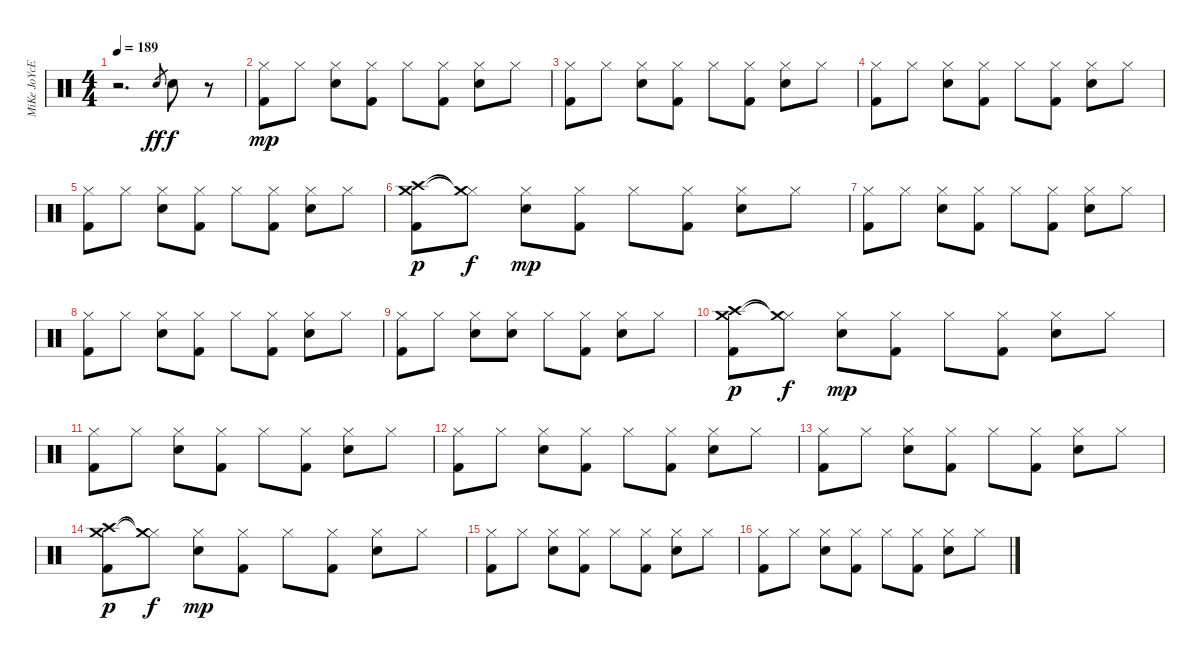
\track ("MiKe JoYcE" "MiKe JoYcE") {instrument percussion}
\staff {score}
\articulation defaults
\ts (4 4)
\tempo 189
\clef neutral
\ks c
r.2{d dy ff} "Electric Snare (hit)".8{gr} "Electric Snare (hit)".8{dy f} r.8 |
("Hi-Hat (closed)" "Kick (hit) 2").8{dy mp} "Hi-Hat (closed)".8 ("Hi-Hat (closed)" "Electric Snare (hit)").8 ("Hi-Hat (closed)" "Kick (hit) 2").8 "Hi-Hat (closed)".8 ("Hi-Hat (closed)" "Kick (hit) 2").8 ("Hi-Hat (closed)" "Electric Snare (hit)").8 "Hi-Hat (closed)".8 |
("Hi-Hat (closed)" "Kick (hit) 2").8 "Hi-Hat (closed)".8 ("Hi-Hat (closed)" "Electric Snare (hit)").8 ("Hi-Hat (closed)" "Kick (hit) 2").8 "Hi-Hat (closed)".8 ("Hi-Hat (closed)" "Kick (hit) 2").8 ("Hi-Hat (closed)" "Electric Snare (hit)").8 "Hi-Hat (closed)".8 |
("Hi-Hat (closed)" "Kick (hit) 2").8 "Hi-Hat (closed)".8 ("Hi-Hat (closed)" "Electric Snare (hit)").8 ("Hi-Hat (closed)" "Kick (hit) 2").8 "Hi-Hat (closed)".8 ("Hi-Hat (closed)" "Kick (hit) 2").8 ("Hi-Hat (closed)" "Electric Snare (hit)").8 "Hi-Hat (closed)".8 |
("Hi-Hat (closed)" "Kick (hit) 2").8 "Hi-Hat (closed)".8 ("Hi-Hat (closed)" "Electric Snare (hit)").8 ("Hi-Hat (closed)" "Kick (hit) 2").8 "Hi-Hat (closed)".8 ("Hi-Hat (closed)" "Kick (hit) 2").8 ("Hi-Hat (closed)" "Electric Snare (hit)").8 "Hi-Hat (closed)".8 |
("Crash high (hit)" "Crash medium (hit)" "Kick (hit) 2").8{dy p} ("Hi-Hat (closed)"{t} "Crash medium (hit)"{t}).8{dy f} ("Hi-Hat (closed)" "Electric Snare (hit)").8{dy mp} ("Hi-Hat (closed)" "Kick (hit) 2").8 "Hi-Hat (closed)".8 ("Hi-Hat (closed)" "Kick (hit) 2").8 ("Hi-Hat (closed)" "Electric Snare (hit)").8 "Hi-Hat (closed)".8 |
("Hi-Hat (closed)" "Kick (hit) 2").8 "Hi-Hat (closed)".8 ("Hi-Hat (closed)" "Electric Snare (hit)").8 ("Hi-Hat (closed)" "Kick (hit) 2").8 "Hi-Hat (closed)".8 ("Hi-Hat (closed)" "Kick (hit) 2").8 ("Hi-Hat (closed)" "Electric Snare (hit)").8 "Hi-Hat (closed)".8 |
("Hi-Hat (closed)" "Kick (hit) 2").8 "Hi-Hat (closed)".8 ("Hi-Hat (closed)" "Electric Snare (hit)").8 ("Hi-Hat (closed)" "Kick (hit) 2").8 "Hi-Hat (closed)".8 ("Hi-Hat (closed)" "Kick (hit) 2").8 ("Hi-Hat (closed)" "Electric Snare (hit)").8 "Hi-Hat (closed)".8 |
("Hi-Hat (closed)" "Kick (hit) 2").8 "Hi-Hat (closed)".8 ("Hi-Hat (closed)" "Electric Snare (hit)").8 ("Hi-Hat (closed)" "Electric Snare (hit)").8 "Hi-Hat (closed)".8 ("Hi-Hat (closed)" "Kick (hit) 2").8 ("Hi-Hat (closed)" "Electric Snare (hit)").8 "Hi-Hat (closed)".8 |
("Crash high (hit)" "Crash medium (hit)" "Kick (hit) 2").8{dy p} ("Hi-Hat (closed)"{t} "Crash medium (hit)"{t}).8{dy f} ("Hi-Hat (closed)" "Electric Snare (hit)").8{dy mp} ("Hi-Hat (closed)" "Kick (hit) 2").8 "Hi-Hat (closed)".8 ("Hi-Hat (closed)" "Kick (hit) 2").8 ("Hi-Hat (closed)" "Electric Snare (hit)").8 "Hi-Hat (closed)".8 |
("Hi-Hat (closed)" "Kick (hit) 2").8 "Hi-Hat (closed)".8 ("Hi-Hat (closed)" "Electric Snare (hit)").8 ("Hi-Hat (closed)" "Kick (hit) 2").8 "Hi-Hat (closed)".8 ("Hi-Hat (closed)" "Kick (hit) 2").8 ("Hi-Hat (closed)" "Electric Snare (hit)").8 "Hi-Hat (closed)".8 |
("Hi-Hat (closed)" "Kick (hit) 2").8 "Hi-Hat (closed)".8 ("Hi-Hat (closed)" "Electric Snare (hit)").8 ("Hi-Hat (closed)" "Kick (hit) 2").8 "Hi-Hat (closed)".8 ("Hi-Hat (closed)" "Kick (hit) 2").8 ("Hi-Hat (closed)" "Electric Snare (hit)").8 "Hi-Hat (closed)".8 |
("Hi-Hat (closed)" "Kick (hit) 2").8 "Hi-Hat (closed)".8 ("Hi-Hat (closed)" "Electric Snare (hit)").8 ("Hi-Hat (closed)" "Kick (hit) 2").8 "Hi-Hat (closed)".8 ("Hi-Hat (closed)" "Kick (hit) 2").8 ("Hi-Hat (closed)" "Electric Snare (hit)").8 "Hi-Hat (closed)".8 |
("Crash high (hit)" "Crash medium (hit)" "Kick (hit) 2").8{dy p} ("Hi-Hat (closed)"{t} "Crash medium (hit)"{t}).8{dy f} ("Hi-Hat (closed)" "Electric Snare (hit)").8{dy mp} ("Hi-Hat (closed)" "Kick (hit) 2").8 "Hi-Hat (closed)".8 ("Hi-Hat (closed)" "Kick (hit) 2").8 ("Hi-Hat (closed)" "Electric Snare (hit)").8 "Hi-Hat (closed)".8 |
("Hi-Hat (closed)" "Kick (hit) 2").8 "Hi-Hat (closed)".8 ("Hi-Hat (closed)" "Electric Snare (hit)").8 ("Hi-Hat (closed)" "Kick (hit) 2").8 "Hi-Hat (closed)".8 ("Hi-Hat (closed)" "Kick (hit) 2").8 ("Hi-Hat (closed)" "Electric Snare (hit)").8 "Hi-Hat (closed)".8 |
("Hi-Hat (closed)" "Kick (hit) 2").8 "Hi-Hat (closed)".8 ("Hi-Hat (closed)" "Electric Snare (hit)").8 ("Hi-Hat (closed)" "Kick (hit) 2").8 "Hi-Hat (closed)".8 ("Hi-Hat (closed)" "Kick (hit) 2").8 ("Hi-Hat (closed)" "Electric Snare (hit)").8 "Hi-Hat (closed)".8
